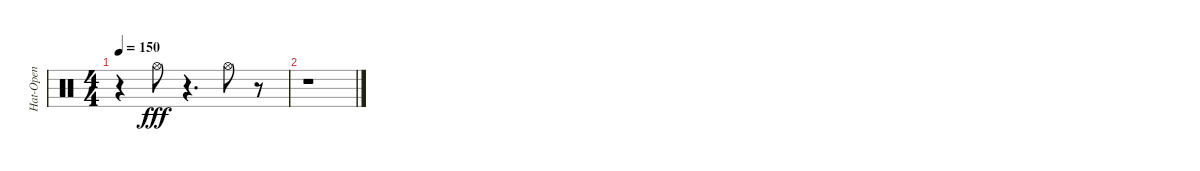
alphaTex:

\track ("Hat-Open" "Hat-Open") {instrument percussion}
\staff {score}
\articulation defaults
\ts (4 4)
\tempo 150
\clef neutral
\ks c
r.4{dy fff} "Hi-Hat (open)".8 r.4{d} "Hi-Hat (open)".8 r.8 |
r.1
